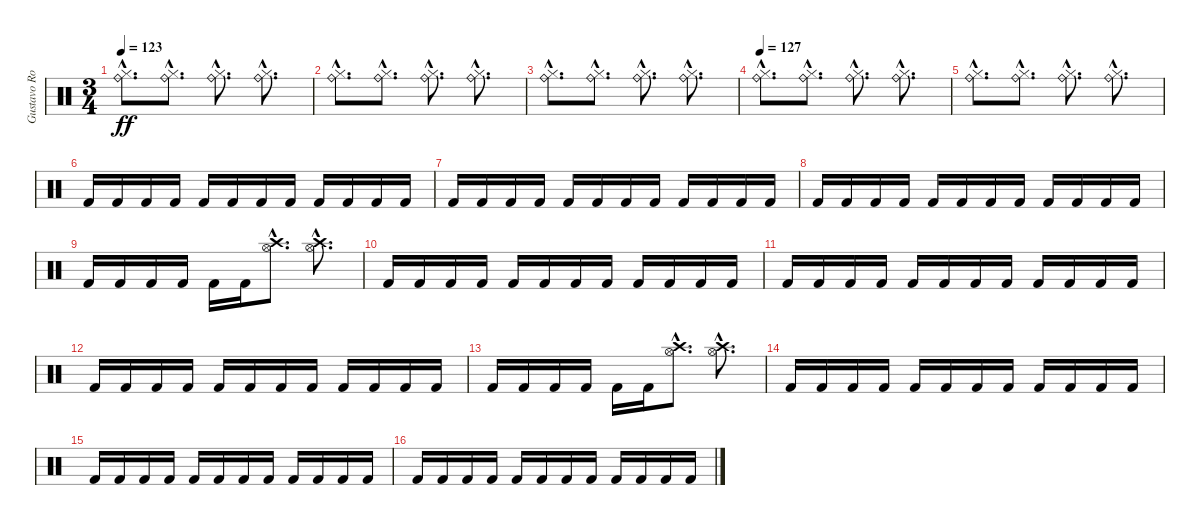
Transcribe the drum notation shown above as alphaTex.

\track ("Gustavo Rowek 1" "Gustavo Ro") {instrument percussion}
\staff {score}
\articulation defaults
\ts (3 4)
\tempo 123
\clef neutral
\ks c
("Hi-Hat (closed)"{hac} "Ride (bell)"{hac}).8{d dy ff} ("Hi-Hat (closed)"{hac} "Ride (bell)"{hac}).8{d} ("Hi-Hat (closed)"{hac} "Ride (bell)"{hac}).8{d} ("Hi-Hat (closed)"{hac} "Ride (bell)"{hac}).8{d} |
("Hi-Hat (closed)"{hac} "Ride (bell)"{hac}).8{d} ("Hi-Hat (closed)"{hac} "Ride (bell)"{hac}).8{d} ("Hi-Hat (closed)"{hac} "Ride (bell)"{hac}).8{d} ("Hi-Hat (closed)"{hac} "Ride (bell)"{hac}).8{d} |
("Hi-Hat (closed)"{hac} "Ride (bell)"{hac}).8{d} ("Hi-Hat (closed)"{hac} "Ride (bell)"{hac}).8{d} ("Hi-Hat (closed)"{hac} "Ride (bell)"{hac}).8{d} ("Hi-Hat (closed)"{hac} "Ride (bell)"{hac}).8{d} |
\tempo 127
("Hi-Hat (closed)"{hac} "Ride (bell)"{hac}).8{d} ("Hi-Hat (closed)"{hac} "Ride (bell)"{hac}).8{d} ("Hi-Hat (closed)"{hac} "Ride (bell)"{hac}).8{d} ("Hi-Hat (closed)"{hac} "Ride (bell)"{hac}).8{d} |
("Hi-Hat (closed)"{hac} "Ride (bell)"{hac}).8{d} ("Hi-Hat (closed)"{hac} "Ride (bell)"{hac}).8{d} ("Hi-Hat (closed)"{hac} "Ride (bell)"{hac}).8{d} ("Hi-Hat (closed)"{hac} "Ride (bell)"{hac}).8{d} |
"Kick (hit) 2".16 "Kick (hit) 2".16 "Kick (hit) 2".16 "Kick (hit) 2".16 "Kick (hit) 2".16 "Kick (hit) 2".16 "Kick (hit) 2".16 "Kick (hit) 2".16 "Kick (hit) 2".16 "Kick (hit) 2".16 "Kick (hit) 2".16 "Kick (hit) 2".16 |
"Kick (hit) 2".16 "Kick (hit) 2".16 "Kick (hit) 2".16 "Kick (hit) 2".16 "Kick (hit) 2".16 "Kick (hit) 2".16 "Kick (hit) 2".16 "Kick (hit) 2".16 "Kick (hit) 2".16 "Kick (hit) 2".16 "Kick (hit) 2".16 "Kick (hit) 2".16 |
"Kick (hit) 2".16 "Kick (hit) 2".16 "Kick (hit) 2".16 "Kick (hit) 2".16 "Kick (hit) 2".16 "Kick (hit) 2".16 "Kick (hit) 2".16 "Kick (hit) 2".16 "Kick (hit) 2".16 "Kick (hit) 2".16 "Kick (hit) 2".16 "Kick (hit) 2".16 |
"Kick (hit) 2".16 "Kick (hit) 2".16 "Kick (hit) 2".16 "Kick (hit) 2".16 "Kick (hit) 2".16 "Kick (hit) 2".16 ("Hi-Hat (open)"{hac} "Crash high (hit)"{hac}).8{d} ("Hi-Hat (open)"{hac} "Crash high (hit)"{hac}).8{d} |
"Kick (hit) 2".16 "Kick (hit) 2".16 "Kick (hit) 2".16 "Kick (hit) 2".16 "Kick (hit) 2".16 "Kick (hit) 2".16 "Kick (hit) 2".16 "Kick (hit) 2".16 "Kick (hit) 2".16 "Kick (hit) 2".16 "Kick (hit) 2".16 "Kick (hit) 2".16 |
"Kick (hit) 2".16 "Kick (hit) 2".16 "Kick (hit) 2".16 "Kick (hit) 2".16 "Kick (hit) 2".16 "Kick (hit) 2".16 "Kick (hit) 2".16 "Kick (hit) 2".16 "Kick (hit) 2".16 "Kick (hit) 2".16 "Kick (hit) 2".16 "Kick (hit) 2".16 |
"Kick (hit) 2".16 "Kick (hit) 2".16 "Kick (hit) 2".16 "Kick (hit) 2".16 "Kick (hit) 2".16 "Kick (hit) 2".16 "Kick (hit) 2".16 "Kick (hit) 2".16 "Kick (hit) 2".16 "Kick (hit) 2".16 "Kick (hit) 2".16 "Kick (hit) 2".16 |
"Kick (hit) 2".16 "Kick (hit) 2".16 "Kick (hit) 2".16 "Kick (hit) 2".16 "Kick (hit) 2".16 "Kick (hit) 2".16 ("Hi-Hat (open)"{hac} "Crash high (hit)"{hac}).8{d} ("Hi-Hat (open)"{hac} "Crash high (hit)"{hac}).8{d} |
"Kick (hit) 2".16 "Kick (hit) 2".16 "Kick (hit) 2".16 "Kick (hit) 2".16 "Kick (hit) 2".16 "Kick (hit) 2".16 "Kick (hit) 2".16 "Kick (hit) 2".16 "Kick (hit) 2".16 "Kick (hit) 2".16 "Kick (hit) 2".16 "Kick (hit) 2".16 |
"Kick (hit) 2".16 "Kick (hit) 2".16 "Kick (hit) 2".16 "Kick (hit) 2".16 "Kick (hit) 2".16 "Kick (hit) 2".16 "Kick (hit) 2".16 "Kick (hit) 2".16 "Kick (hit) 2".16 "Kick (hit) 2".16 "Kick (hit) 2".16 "Kick (hit) 2".16 |
"Kick (hit) 2".16 "Kick (hit) 2".16 "Kick (hit) 2".16 "Kick (hit) 2".16 "Kick (hit) 2".16 "Kick (hit) 2".16 "Kick (hit) 2".16 "Kick (hit) 2".16 "Kick (hit) 2".16 "Kick (hit) 2".16 "Kick (hit) 2".16 "Kick (hit) 2".16
